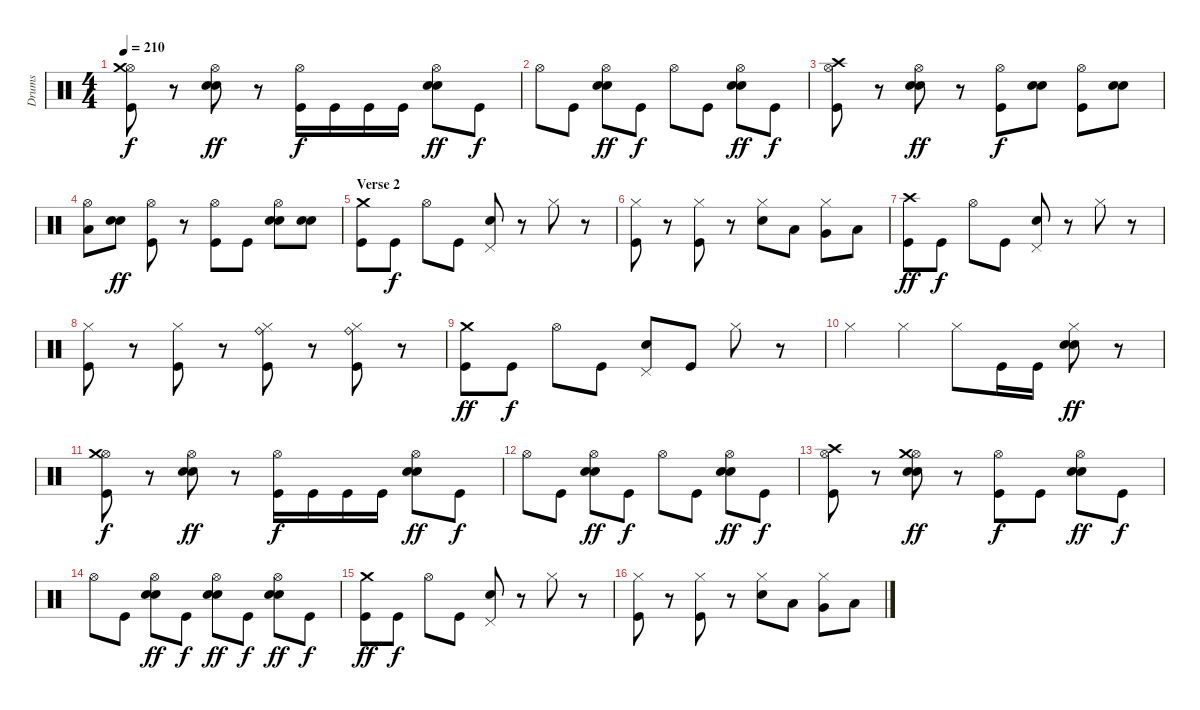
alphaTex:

\track ("Drums" "Drums") {instrument percussion}
\staff {score}
\articulation defaults
\ts (4 4)
\tempo 210
\clef neutral
\ks c
("Kick (hit)" "Hi-Hat (open)" "Crash medium (hit)").8{dy f} r.8 ("Electric Snare (hit)" "Electric Snare (hit)" "Hi-Hat (open)").8{dy ff} r.8 ("Kick (hit)" "Hi-Hat (open)").16{dy f} "Kick (hit)".16 "Kick (hit)".16 "Kick (hit)".16 ("Electric Snare (hit)" "Electric Snare (hit)" "Hi-Hat (open)").8{dy ff} "Kick (hit)".8{dy f} |
"Hi-Hat (open)".8 "Kick (hit)".8 ("Electric Snare (hit)" "Electric Snare (hit)" "Hi-Hat (open)").8{dy ff} "Kick (hit)".8{dy f} "Hi-Hat (open)".8 "Kick (hit)".8 ("Electric Snare (hit)" "Electric Snare (hit)" "Hi-Hat (open)").8{dy ff} "Kick (hit)".8{dy f} |
("Kick (hit)" "Hi-Hat (open)" "Crash high (hit)").8 r.8 ("Electric Snare (hit)" "Electric Snare (hit)" "Hi-Hat (open)").8{dy ff} r.8 ("Kick (hit)" "Hi-Hat (open)").8{dy f} ("Electric Snare (hit)" "Electric Snare (hit)").8 ("Kick (hit)" "Hi-Hat (open)").8 ("Electric Snare (hit)" "Electric Snare (hit)").8 |
("Low Floor Tom (hit)" "Hi-Hat (open)").8 ("Electric Snare (hit)" "Electric Snare (hit)").8{dy ff} ("Kick (hit)" "Hi-Hat (open)").8 r.8 ("Kick (hit)" "Hi-Hat (open)").8 "Kick (hit)".8 ("Electric Snare (hit)" "Electric Snare (hit)" "Hi-Hat (open)").8 ("Electric Snare (hit)" "Electric Snare (hit)").8 |
\section ("" "Verse 2")
("Kick (hit)" "Crash medium (hit)").8 "Kick (hit)".8{dy f} "Hi-Hat (open)".8 "Kick (hit)".8 ("Electric Snare (hit)" "Pedal Hi-Hat (hit)").8 r.8 "Hi-Hat (closed)".8 r.8 |
("Kick (hit)" "Hi-Hat (closed)").8 r.8 ("Kick (hit)" "Hi-Hat (closed)").8 r.8 ("Electric Snare (hit)" "Hi-Hat (closed)").8 "Low Tom (hit)".8 ("Very Low Tom (hit)" "Hi-Hat (closed)").8 "Low Floor Tom (hit)".8 |
("Kick (hit)" "Crash high (hit)").8{dy ff} "Kick (hit)".8{dy f} "Hi-Hat (open)".8 "Kick (hit)".8 ("Electric Snare (hit)" "Pedal Hi-Hat (hit)").8 r.8 "Hi-Hat (closed)".8 r.8 |
("Kick (hit)" "Hi-Hat (closed)").8 r.8 ("Kick (hit)" "Hi-Hat (closed)").8 r.8 ("Kick (hit)" "Ride (bell)" "Hi-Hat (closed)").8 r.8 ("Kick (hit)" "Ride (bell)" "Hi-Hat (closed)").8 r.8 |
("Kick (hit)" "Crash medium (hit)").8{dy ff} "Kick (hit)".8{dy f} "Hi-Hat (open)".8 "Kick (hit)".8 ("Electric Snare (hit)" "Pedal Hi-Hat (hit)").8 "Kick (hit)".8 "Hi-Hat (closed)".8 r.8 |
"Hi-Hat (closed)".4 "Hi-Hat (closed)".4 "Hi-Hat (closed)".8 "Kick (hit)".16 "Kick (hit)".16 ("Electric Snare (hit)" "Electric Snare (hit)" "Hi-Hat (closed)").8{dy ff} r.8 |
("Kick (hit)" "Hi-Hat (open)" "Crash medium (hit)").8{dy f} r.8 ("Electric Snare (hit)" "Electric Snare (hit)" "Hi-Hat (open)").8{dy ff} r.8 ("Kick (hit)" "Hi-Hat (open)").16{dy f} "Kick (hit)".16 "Kick (hit)".16 "Kick (hit)".16 ("Electric Snare (hit)" "Electric Snare (hit)" "Hi-Hat (open)").8{dy ff} "Kick (hit)".8{dy f} |
"Hi-Hat (open)".8 "Kick (hit)".8 ("Electric Snare (hit)" "Electric Snare (hit)" "Hi-Hat (open)").8{dy ff} "Kick (hit)".8{dy f} "Hi-Hat (open)".8 "Kick (hit)".8 ("Electric Snare (hit)" "Electric Snare (hit)" "Hi-Hat (open)").8{dy ff} "Kick (hit)".8{dy f} |
("Kick (hit)" "Hi-Hat (open)" "Crash high (hit)").8 r.8 ("Electric Snare (hit)" "Electric Snare (hit)" "Hi-Hat (open)" "Crash medium (hit)").8{dy ff} r.8 ("Kick (hit)" "Hi-Hat (open)").8{dy f} "Kick (hit)".8 ("Electric Snare (hit)" "Electric Snare (hit)" "Hi-Hat (open)").8{dy ff} "Kick (hit)".8{dy f} |
"Hi-Hat (open)".8 "Kick (hit)".8 ("Electric Snare (hit)" "Electric Snare (hit)" "Hi-Hat (open)").8{dy ff} "Kick (hit)".8{dy f} ("Electric Snare (hit)" "Electric Snare (hit)" "Hi-Hat (open)").8{dy ff} "Kick (hit)".8{dy f} ("Electric Snare (hit)" "Electric Snare (hit)" "Hi-Hat (open)").8{dy ff} "Kick (hit)".8{dy f} |
("Kick (hit)" "Crash medium (hit)").8{dy ff} "Kick (hit)".8{dy f} "Hi-Hat (open)".8 "Kick (hit)".8 ("Electric Snare (hit)" "Pedal Hi-Hat (hit)").8 r.8 "Hi-Hat (closed)".8 r.8 |
("Kick (hit)" "Hi-Hat (closed)").8 r.8 ("Kick (hit)" "Hi-Hat (closed)").8 r.8 ("Electric Snare (hit)" "Hi-Hat (closed)").8 "Low Tom (hit)".8 ("Very Low Tom (hit)" "Hi-Hat (closed)").8 "Low Floor Tom (hit)".8
